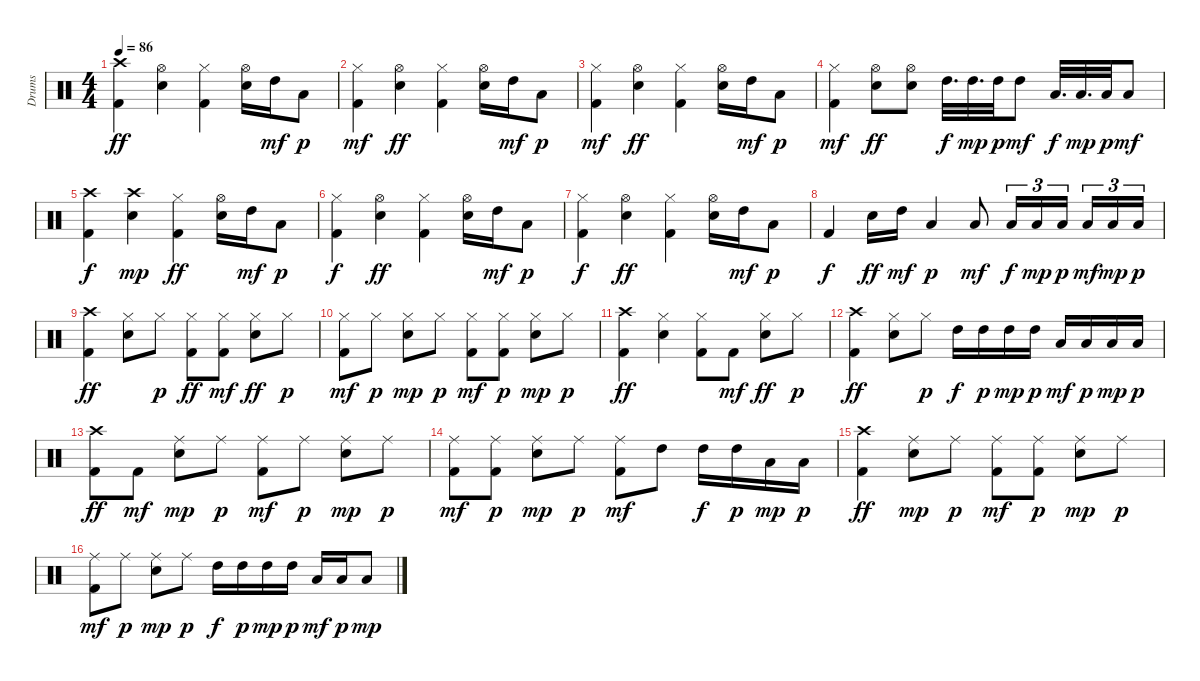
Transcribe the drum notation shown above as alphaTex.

\track ("Drums" "Drums") {instrument percussion}
\staff {score}
\articulation defaults
\ts (4 4)
\tempo 86
\clef neutral
\ks c
("Kick (hit) 2" "Crash high (hit)").4{dy ff volume 16} ("Hi-Hat (open)" "Snare (hit) 2").4 ("Hi-Hat (closed)" "Kick (hit) 2").4 ("Hi-Hat (open)" "Snare (hit) 2").16 "High Tom (hit)".16{dy mf} "Low Tom (hit)".8{dy p} |
("Kick (hit) 2" "Hi-Hat (closed)").4{dy mf} ("Hi-Hat (open)" "Snare (hit) 2").4{dy ff} ("Hi-Hat (closed)" "Kick (hit) 2").4 ("Hi-Hat (open)" "Snare (hit) 2").16 "High Tom (hit)".16{dy mf} "Low Tom (hit)".8{dy p} |
("Kick (hit) 2" "Hi-Hat (closed)").4{dy mf} ("Hi-Hat (open)" "Snare (hit) 2").4{dy ff} ("Hi-Hat (closed)" "Kick (hit) 2").4 ("Hi-Hat (open)" "Snare (hit) 2").16 "High Tom (hit)".16{dy mf} "Low Tom (hit)".8{dy p} |
("Kick (hit) 2" "Hi-Hat (closed)").4{dy mf} ("Hi-Hat (open)" "Snare (hit) 2").8{dy ff} ("Hi-Hat (open)" "Snare (hit) 2").8 "High Tom (hit)".32{d dy f} "High Tom (hit)".32{d dy mp} "High Tom (hit)".32{dy p} "High Tom (hit)".8{dy mf} "Low Floor Tom (hit)".32{d dy f} "Low Floor Tom (hit)".32{d dy mp} "Low Floor Tom (hit)".32{dy p} "Low Floor Tom (hit)".8{dy mf} |
("Kick (hit) 2" "Crash high (hit)").4{dy f} ("Snare (hit) 2" "Crash high (hit)").4{dy mp} ("Hi-Hat (closed)" "Kick (hit) 2").4{dy ff} ("Hi-Hat (open)" "Snare (hit) 2").16 "High Tom (hit)".16{dy mf} "Low Tom (hit)".8{dy p} |
("Kick (hit) 2" "Hi-Hat (closed)").4{dy f} ("Hi-Hat (open)" "Snare (hit) 2").4{dy ff} ("Hi-Hat (closed)" "Kick (hit) 2").4 ("Hi-Hat (open)" "Snare (hit) 2").16 "High Tom (hit)".16{dy mf} "Low Tom (hit)".8{dy p} |
("Kick (hit) 2" "Hi-Hat (closed)").4{dy f} ("Hi-Hat (open)" "Snare (hit) 2").4{dy ff} ("Hi-Hat (closed)" "Kick (hit) 2").4 ("Hi-Hat (open)" "Snare (hit) 2").16 "High Tom (hit)".16{dy mf} "Low Tom (hit)".8{dy p} |
"Kick (hit) 2".4{dy f} "Snare (hit) 2".16{dy ff} "High Tom (hit)".16{dy mf} "Low Tom (hit)".4{dy p} "Low Tom (hit)".8{dy mf} "Low Tom (hit)".16{tu (3 2) dy f} "Low Tom (hit)".16{tu (3 2) dy mp} "Low Tom (hit)".16{tu (3 2) dy p beam splitsecondary} "Low Floor Tom (hit)".16{tu (3 2) dy mf} "Low Floor Tom (hit)".16{tu (3 2) dy mp} "Low Floor Tom (hit)".16{tu (3 2) dy p} |
("Kick (hit) 2" "Crash high (hit)").4{dy ff} ("Hi-Hat (closed)" "Snare (hit) 2").8 "Hi-Hat (closed)".8{dy p} ("Hi-Hat (closed)" "Kick (hit) 2").8{dy ff} ("Hi-Hat (closed)" "Kick (hit) 2").8{dy mf} ("Hi-Hat (closed)" "Snare (hit) 2").8{dy ff} "Hi-Hat (closed)".8{dy p} |
("Kick (hit) 2" "Hi-Hat (closed)").8{dy mf} "Hi-Hat (closed)".8{dy p} ("Snare (hit) 2" "Hi-Hat (closed)").8{dy mp} "Hi-Hat (closed)".8{dy p} ("Kick (hit) 2" "Hi-Hat (closed)").8{dy mf} ("Kick (hit) 2" "Hi-Hat (closed)").8{dy p} ("Snare (hit) 2" "Hi-Hat (closed)").8{dy mp} "Hi-Hat (closed)".8{dy p} |
("Kick (hit) 2" "Crash high (hit)").4{dy ff} ("Hi-Hat (closed)" "Snare (hit) 2").4 ("Hi-Hat (closed)" "Kick (hit) 2").8 "Kick (hit) 2".8{dy mf} ("Hi-Hat (closed)" "Snare (hit) 2").8{dy ff} "Hi-Hat (closed)".8{dy p} |
("Kick (hit) 2" "Crash high (hit)").4{dy ff} ("Hi-Hat (closed)" "Snare (hit) 2").8 "Hi-Hat (closed)".8{dy p} "High Tom (hit)".16{dy f} "High Tom (hit)".16{dy p} "High Tom (hit)".16{dy mp} "High Tom (hit)".16{dy p} "Low Tom (hit)".16{dy mf} "Low Tom (hit)".16{dy p} "Low Floor Tom (hit)".16{dy mp} "Low Floor Tom (hit)".16{dy p} |
("Kick (hit) 2" "Crash high (hit)").8{dy ff} "Kick (hit) 2".8{dy mf} ("Snare (hit) 2" "Ride (middle)").8{dy mp} "Ride (middle)".8{dy p} ("Kick (hit) 2" "Ride (middle)").8{dy mf} "Ride (middle)".8{dy p} ("Snare (hit) 2" "Ride (middle)").8{dy mp} "Ride (middle)".8{dy p} |
("Kick (hit) 2" "Ride (middle)").8{dy mf} ("Kick (hit) 2" "Ride (middle)").8{dy p} ("Snare (hit) 2" "Ride (middle)").8{dy mp} "Ride (middle)".8{dy p} ("Kick (hit) 2" "Ride (middle)").8{dy mf} "High Tom (hit)".8 "High Tom (hit)".16{dy f} "High Tom (hit)".16{dy p} "Low Tom (hit)".16{dy mp} "Low Tom (hit)".16{dy p} |
("Kick (hit) 2" "Crash high (hit)").4{dy ff} ("Snare (hit) 2" "Ride (middle)").8{dy mp} "Ride (middle)".8{dy p} ("Kick (hit) 2" "Ride (middle)").8{dy mf} ("Kick (hit) 2" "Ride (middle)").8{dy p} ("Snare (hit) 2" "Ride (middle)").8{dy mp} "Ride (middle)".8{dy p} |
("Kick (hit) 2" "Ride (middle)").8{dy mf} "Ride (middle)".8{dy p} ("Snare (hit) 2" "Ride (middle)").8{dy mp} "Ride (middle)".8{dy p} "High Tom (hit)".16{dy f} "High Tom (hit)".16{dy p} "High Tom (hit)".16{dy mp} "High Tom (hit)".16{dy p} "Low Tom (hit)".16{dy mf} "Low Tom (hit)".16{dy p} "Low Floor Tom (hit)".8{dy mp}
